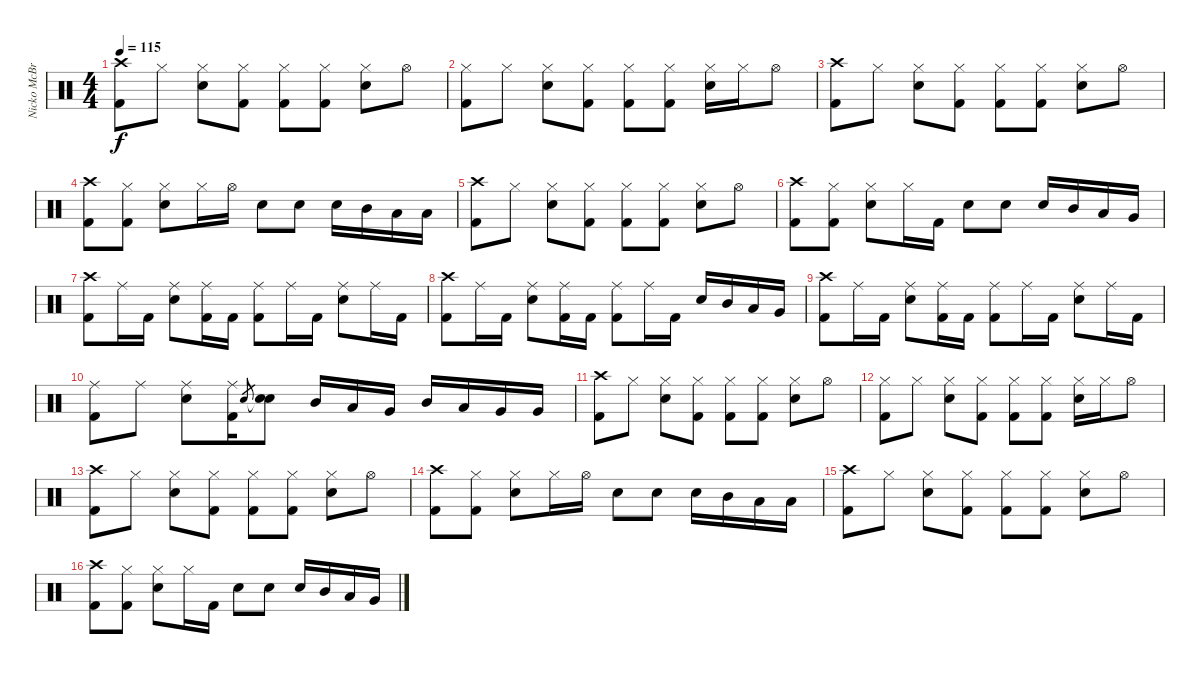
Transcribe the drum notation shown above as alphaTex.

\track ("Nicko McBrain" "Nicko McBr") {instrument percussion}
\staff {score}
\articulation defaults
\ts (4 4)
\tempo 115
\clef neutral
\ks c
("Crash high (hit)" "Kick (hit) 2").8{dy f} "Hi-Hat (closed)".8 ("Hi-Hat (closed)" "Electric Snare (hit)").8 ("Hi-Hat (closed)" "Kick (hit) 2").8 ("Hi-Hat (closed)" "Kick (hit) 2").8 ("Hi-Hat (closed)" "Kick (hit) 2").8 ("Hi-Hat (closed)" "Electric Snare (hit)").8 "Hi-Hat (open)".8 |
("Hi-Hat (closed)" "Kick (hit) 2").8 "Hi-Hat (closed)".8 ("Hi-Hat (closed)" "Electric Snare (hit)").8 ("Hi-Hat (closed)" "Kick (hit) 2").8 ("Hi-Hat (closed)" "Kick (hit) 2").8 ("Hi-Hat (closed)" "Kick (hit) 2").8 ("Hi-Hat (closed)" "Electric Snare (hit)").16 "Hi-Hat (closed)".16 "Hi-Hat (open)".8 |
("Crash high (hit)" "Kick (hit) 2").8 "Hi-Hat (closed)".8 ("Hi-Hat (closed)" "Electric Snare (hit)").8 ("Hi-Hat (closed)" "Kick (hit) 2").8 ("Hi-Hat (closed)" "Kick (hit) 2").8 ("Hi-Hat (closed)" "Kick (hit) 2").8 ("Hi-Hat (closed)" "Electric Snare (hit)").8 "Hi-Hat (open)".8 |
("Crash high (hit)" "Kick (hit) 2").8 ("Hi-Hat (closed)" "Kick (hit) 2").8 ("Hi-Hat (closed)" "Electric Snare (hit)").8 "Hi-Hat (closed)".16 "Hi-Hat (open)".16 "Electric Snare (hit)".8 "Electric Snare (hit)".8 "Electric Snare (hit)".16 "Mid Tom (hit)".16 "Low Tom (hit)".16 "Low Tom (hit)".16 |
("Crash high (hit)" "Kick (hit) 2").8 "Hi-Hat (closed)".8 ("Hi-Hat (closed)" "Electric Snare (hit)").8 ("Hi-Hat (closed)" "Kick (hit) 2").8 ("Hi-Hat (closed)" "Kick (hit) 2").8 ("Hi-Hat (closed)" "Kick (hit) 2").8 ("Hi-Hat (closed)" "Electric Snare (hit)").8 "Hi-Hat (open)".8 |
("Crash high (hit)" "Kick (hit) 2").8 ("Hi-Hat (closed)" "Kick (hit) 2").8 ("Hi-Hat (closed)" "Electric Snare (hit)").8 "Hi-Hat (closed)".16 "Kick (hit) 2".16 "Electric Snare (hit)".8 "Electric Snare (hit)".8 "Electric Snare (hit)".16 "Mid Tom (hit)".16 "Low Tom (hit)".16 "Very Low Tom (hit)".16 |
("Crash high (hit)" "Kick (hit) 2").8 "Ride (middle)".16 "Kick (hit) 2".16 ("Ride (middle)" "Electric Snare (hit)").8 ("Ride (middle)" "Kick (hit) 2").16 "Kick (hit) 2".16 ("Ride (middle)" "Kick (hit) 2").8 "Ride (middle)".16 "Kick (hit) 2".16 ("Ride (middle)" "Electric Snare (hit)").8 "Ride (middle)".16 "Kick (hit) 2".16 |
("Crash high (hit)" "Kick (hit) 2").8 "Ride (middle)".16 "Kick (hit) 2".16 ("Ride (middle)" "Electric Snare (hit)").8 ("Ride (middle)" "Kick (hit) 2").16 "Kick (hit) 2".16 ("Ride (middle)" "Kick (hit) 2").8 "Ride (middle)".16 "Kick (hit) 2".16 "Electric Snare (hit)".16 "Mid Tom (hit)".16 "Low Tom (hit)".16 "Very Low Tom (hit)".16 |
("Crash high (hit)" "Kick (hit) 2").8 "Ride (middle)".16 "Kick (hit) 2".16 ("Ride (middle)" "Electric Snare (hit)").8 ("Ride (middle)" "Kick (hit) 2").16 "Kick (hit) 2".16 ("Ride (middle)" "Kick (hit) 2").8 "Ride (middle)".16 "Kick (hit) 2".16 ("Ride (middle)" "Electric Snare (hit)").8 "Ride (middle)".16 "Kick (hit) 2".16 |
("Ride (middle)" "Kick (hit) 2").8 "Ride (middle)".8 ("Ride (middle)" "Electric Snare (hit)").8 ("Ride (middle)" "Kick (hit) 2").16 "Electric Snare (hit)".8{gr} ("Electric Snare (hit)"{t} "Electric Snare (hit)").8 "Mid Tom (hit)".16 "Low Tom (hit)".16 "Very Low Tom (hit)".16 "Mid Tom (hit)".16 "Low Tom (hit)".16 "Very Low Tom (hit)".16 "Very Low Tom (hit)".16 |
("Crash high (hit)" "Kick (hit) 2").8 "Hi-Hat (closed)".8 ("Hi-Hat (closed)" "Electric Snare (hit)").8 ("Hi-Hat (closed)" "Kick (hit) 2").8 ("Hi-Hat (closed)" "Kick (hit) 2").8 ("Hi-Hat (closed)" "Kick (hit) 2").8 ("Hi-Hat (closed)" "Electric Snare (hit)").8 "Hi-Hat (open)".8 |
("Hi-Hat (closed)" "Kick (hit) 2").8 "Hi-Hat (closed)".8 ("Hi-Hat (closed)" "Electric Snare (hit)").8 ("Hi-Hat (closed)" "Kick (hit) 2").8 ("Hi-Hat (closed)" "Kick (hit) 2").8 ("Hi-Hat (closed)" "Kick (hit) 2").8 ("Hi-Hat (closed)" "Electric Snare (hit)").16 "Hi-Hat (closed)".16 "Hi-Hat (open)".8 |
("Crash high (hit)" "Kick (hit) 2").8 "Hi-Hat (closed)".8 ("Hi-Hat (closed)" "Electric Snare (hit)").8 ("Hi-Hat (closed)" "Kick (hit) 2").8 ("Hi-Hat (closed)" "Kick (hit) 2").8 ("Hi-Hat (closed)" "Kick (hit) 2").8 ("Hi-Hat (closed)" "Electric Snare (hit)").8 "Hi-Hat (open)".8 |
("Crash high (hit)" "Kick (hit) 2").8 ("Hi-Hat (closed)" "Kick (hit) 2").8 ("Hi-Hat (closed)" "Electric Snare (hit)").8 "Hi-Hat (closed)".16 "Hi-Hat (open)".16 "Electric Snare (hit)".8 "Electric Snare (hit)".8 "Electric Snare (hit)".16 "Mid Tom (hit)".16 "Low Tom (hit)".16 "Low Tom (hit)".16 |
("Crash high (hit)" "Kick (hit) 2").8 "Hi-Hat (closed)".8 ("Hi-Hat (closed)" "Electric Snare (hit)").8 ("Hi-Hat (closed)" "Kick (hit) 2").8 ("Hi-Hat (closed)" "Kick (hit) 2").8 ("Hi-Hat (closed)" "Kick (hit) 2").8 ("Hi-Hat (closed)" "Electric Snare (hit)").8 "Hi-Hat (open)".8 |
("Crash high (hit)" "Kick (hit) 2").8 ("Hi-Hat (closed)" "Kick (hit) 2").8 ("Hi-Hat (closed)" "Electric Snare (hit)").8 "Hi-Hat (closed)".16 "Kick (hit) 2".16 "Electric Snare (hit)".8 "Electric Snare (hit)".8 "Electric Snare (hit)".16 "Mid Tom (hit)".16 "Low Tom (hit)".16 "Very Low Tom (hit)".16
